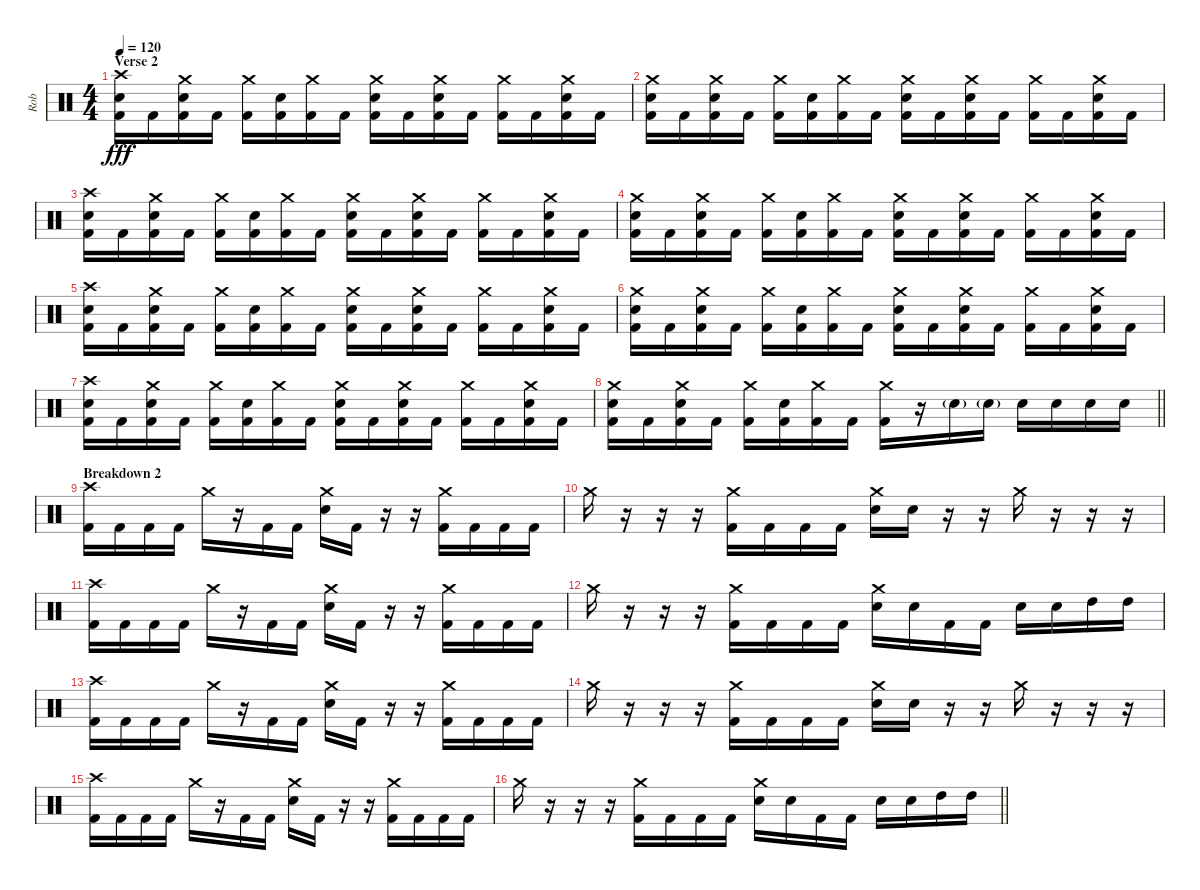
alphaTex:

\track ("Rob" "Rob") {instrument percussion}
\staff {score}
\articulation defaults
\ts (4 4)
\section ("" "Verse 2")
\tempo 120
\clef neutral
\ks c
("Crash high (hit)" "Electric Snare (hit)" "Kick (hit) 2").16{dy fff} "Kick (hit) 2".16 ("Crash medium (hit)" "Electric Snare (hit)" "Kick (hit) 2").16 "Kick (hit) 2".16 ("Crash medium (hit)" "Kick (hit) 2").16 ("Electric Snare (hit)" "Kick (hit) 2").16 ("Crash medium (hit)" "Kick (hit) 2").16 "Kick (hit) 2".16 ("Crash medium (hit)" "Electric Snare (hit)" "Kick (hit) 2").16 "Kick (hit) 2".16 ("Crash medium (hit)" "Electric Snare (hit)" "Kick (hit) 2").16 "Kick (hit) 2".16 ("Crash medium (hit)" "Kick (hit) 2").16 "Kick (hit) 2".16 ("Crash medium (hit)" "Electric Snare (hit)" "Kick (hit) 2").16 "Kick (hit) 2".16 |
("Crash medium (hit)" "Electric Snare (hit)" "Kick (hit) 2").16 "Kick (hit) 2".16 ("Crash medium (hit)" "Electric Snare (hit)" "Kick (hit) 2").16 "Kick (hit) 2".16 ("Crash medium (hit)" "Kick (hit) 2").16 ("Electric Snare (hit)" "Kick (hit) 2").16 ("Crash medium (hit)" "Kick (hit) 2").16 "Kick (hit) 2".16 ("Crash medium (hit)" "Electric Snare (hit)" "Kick (hit) 2").16 "Kick (hit) 2".16 ("Crash medium (hit)" "Electric Snare (hit)" "Kick (hit) 2").16 "Kick (hit) 2".16 ("Crash medium (hit)" "Kick (hit) 2").16 "Kick (hit) 2".16 ("Crash medium (hit)" "Electric Snare (hit)" "Kick (hit) 2").16 "Kick (hit) 2".16 |
("Crash high (hit)" "Electric Snare (hit)" "Kick (hit) 2").16 "Kick (hit) 2".16 ("Crash medium (hit)" "Electric Snare (hit)" "Kick (hit) 2").16 "Kick (hit) 2".16 ("Crash medium (hit)" "Kick (hit) 2").16 ("Electric Snare (hit)" "Kick (hit) 2").16 ("Crash medium (hit)" "Kick (hit) 2").16 "Kick (hit) 2".16 ("Crash medium (hit)" "Electric Snare (hit)" "Kick (hit) 2").16 "Kick (hit) 2".16 ("Crash medium (hit)" "Electric Snare (hit)" "Kick (hit) 2").16 "Kick (hit) 2".16 ("Crash medium (hit)" "Kick (hit) 2").16 "Kick (hit) 2".16 ("Crash medium (hit)" "Electric Snare (hit)" "Kick (hit) 2").16 "Kick (hit) 2".16 |
("Crash medium (hit)" "Electric Snare (hit)" "Kick (hit) 2").16 "Kick (hit) 2".16 ("Crash medium (hit)" "Electric Snare (hit)" "Kick (hit) 2").16 "Kick (hit) 2".16 ("Crash medium (hit)" "Kick (hit) 2").16 ("Electric Snare (hit)" "Kick (hit) 2").16 ("Crash medium (hit)" "Kick (hit) 2").16 "Kick (hit) 2".16 ("Crash medium (hit)" "Electric Snare (hit)" "Kick (hit) 2").16 "Kick (hit) 2".16 ("Crash medium (hit)" "Electric Snare (hit)" "Kick (hit) 2").16 "Kick (hit) 2".16 ("Crash medium (hit)" "Kick (hit) 2").16 "Kick (hit) 2".16 ("Crash medium (hit)" "Electric Snare (hit)" "Kick (hit) 2").16 "Kick (hit) 2".16 |
("Crash high (hit)" "Electric Snare (hit)" "Kick (hit) 2").16 "Kick (hit) 2".16 ("Crash medium (hit)" "Electric Snare (hit)" "Kick (hit) 2").16 "Kick (hit) 2".16 ("Crash medium (hit)" "Kick (hit) 2").16 ("Electric Snare (hit)" "Kick (hit) 2").16 ("Crash medium (hit)" "Kick (hit) 2").16 "Kick (hit) 2".16 ("Crash medium (hit)" "Electric Snare (hit)" "Kick (hit) 2").16 "Kick (hit) 2".16 ("Crash medium (hit)" "Electric Snare (hit)" "Kick (hit) 2").16 "Kick (hit) 2".16 ("Crash medium (hit)" "Kick (hit) 2").16 "Kick (hit) 2".16 ("Crash medium (hit)" "Electric Snare (hit)" "Kick (hit) 2").16 "Kick (hit) 2".16 |
("Crash medium (hit)" "Electric Snare (hit)" "Kick (hit) 2").16 "Kick (hit) 2".16 ("Crash medium (hit)" "Electric Snare (hit)" "Kick (hit) 2").16 "Kick (hit) 2".16 ("Crash medium (hit)" "Kick (hit) 2").16 ("Electric Snare (hit)" "Kick (hit) 2").16 ("Crash medium (hit)" "Kick (hit) 2").16 "Kick (hit) 2".16 ("Crash medium (hit)" "Electric Snare (hit)" "Kick (hit) 2").16 "Kick (hit) 2".16 ("Crash medium (hit)" "Electric Snare (hit)" "Kick (hit) 2").16 "Kick (hit) 2".16 ("Crash medium (hit)" "Kick (hit) 2").16 "Kick (hit) 2".16 ("Crash medium (hit)" "Electric Snare (hit)" "Kick (hit) 2").16 "Kick (hit) 2".16 |
("Crash high (hit)" "Electric Snare (hit)" "Kick (hit) 2").16 "Kick (hit) 2".16 ("Crash medium (hit)" "Electric Snare (hit)" "Kick (hit) 2").16 "Kick (hit) 2".16 ("Crash medium (hit)" "Kick (hit) 2").16 ("Electric Snare (hit)" "Kick (hit) 2").16 ("Crash medium (hit)" "Kick (hit) 2").16 "Kick (hit) 2".16 ("Crash medium (hit)" "Electric Snare (hit)" "Kick (hit) 2").16 "Kick (hit) 2".16 ("Crash medium (hit)" "Electric Snare (hit)" "Kick (hit) 2").16 "Kick (hit) 2".16 ("Crash medium (hit)" "Kick (hit) 2").16 "Kick (hit) 2".16 ("Crash medium (hit)" "Electric Snare (hit)" "Kick (hit) 2").16 "Kick (hit) 2".16 |
\barLineRight lightlight
("Crash medium (hit)" "Electric Snare (hit)" "Kick (hit) 2").16 "Kick (hit) 2".16 ("Crash medium (hit)" "Electric Snare (hit)" "Kick (hit) 2").16 "Kick (hit) 2".16 ("Crash medium (hit)" "Kick (hit) 2").16 ("Electric Snare (hit)" "Kick (hit) 2").16 ("Crash medium (hit)" "Kick (hit) 2").16 "Kick (hit) 2".16 ("Crash medium (hit)" "Kick (hit) 2").16 r.16 "Electric Snare (hit)"{g}.16 "Electric Snare (hit)"{g}.16 "Electric Snare (hit)".16 "Electric Snare (hit)".16 "Electric Snare (hit)".16 "Electric Snare (hit)".16 |
\section ("" "Breakdown 2")
("Crash high (hit)" "Kick (hit) 2").16 "Kick (hit) 2".16 "Kick (hit) 2".16 "Kick (hit) 2".16 "Crash medium (hit)".16 r.16 "Kick (hit) 2".16 "Kick (hit) 2".16 ("Crash medium (hit)" "Electric Snare (hit)").16 "Kick (hit) 2".16 r.16 r.16 ("Crash medium (hit)" "Kick (hit) 2").16 "Kick (hit) 2".16 "Kick (hit) 2".16 "Kick (hit) 2".16 |
"Crash medium (hit)".16 r.16 r.16 r.16 ("Crash medium (hit)" "Kick (hit) 2").16 "Kick (hit) 2".16 "Kick (hit) 2".16 "Kick (hit) 2".16 ("Crash medium (hit)" "Electric Snare (hit)").16 "Electric Snare (hit)".16 r.16 r.16 "Crash medium (hit)".16 r.16 r.16 r.16 |
("Crash high (hit)" "Kick (hit) 2").16 "Kick (hit) 2".16 "Kick (hit) 2".16 "Kick (hit) 2".16 "Crash medium (hit)".16 r.16 "Kick (hit) 2".16 "Kick (hit) 2".16 ("Crash medium (hit)" "Electric Snare (hit)").16 "Kick (hit) 2".16 r.16 r.16 ("Crash medium (hit)" "Kick (hit) 2").16 "Kick (hit) 2".16 "Kick (hit) 2".16 "Kick (hit) 2".16 |
"Crash medium (hit)".16 r.16 r.16 r.16 ("Crash medium (hit)" "Kick (hit) 2").16 "Kick (hit) 2".16 "Kick (hit) 2".16 "Kick (hit) 2".16 ("Crash medium (hit)" "Electric Snare (hit)").16 "Electric Snare (hit)".16 "Kick (hit) 2".16 "Kick (hit) 2".16 "Electric Snare (hit)".16 "Electric Snare (hit)".16 "High Tom (hit)".16 "High Tom (hit)".16 |
("Crash high (hit)" "Kick (hit) 2").16 "Kick (hit) 2".16 "Kick (hit) 2".16 "Kick (hit) 2".16 "Crash medium (hit)".16 r.16 "Kick (hit) 2".16 "Kick (hit) 2".16 ("Crash medium (hit)" "Electric Snare (hit)").16 "Kick (hit) 2".16 r.16 r.16 ("Crash medium (hit)" "Kick (hit) 2").16 "Kick (hit) 2".16 "Kick (hit) 2".16 "Kick (hit) 2".16 |
"Crash medium (hit)".16 r.16 r.16 r.16 ("Crash medium (hit)" "Kick (hit) 2").16 "Kick (hit) 2".16 "Kick (hit) 2".16 "Kick (hit) 2".16 ("Crash medium (hit)" "Electric Snare (hit)").16 "Electric Snare (hit)".16 r.16 r.16 "Crash medium (hit)".16 r.16 r.16 r.16 |
("Crash high (hit)" "Kick (hit) 2").16 "Kick (hit) 2".16 "Kick (hit) 2".16 "Kick (hit) 2".16 "Crash medium (hit)".16 r.16 "Kick (hit) 2".16 "Kick (hit) 2".16 ("Crash medium (hit)" "Electric Snare (hit)").16 "Kick (hit) 2".16 r.16 r.16 ("Crash medium (hit)" "Kick (hit) 2").16 "Kick (hit) 2".16 "Kick (hit) 2".16 "Kick (hit) 2".16 |
\barLineRight lightlight "Crash medium (hit)".16
r.16 r.16 r.16 ("Crash medium (hit)" "Kick (hit) 2").16 "Kick (hit) 2".16 "Kick (hit) 2".16 "Kick (hit) 2".16 ("Crash medium (hit)" "Electric Snare (hit)").16 "Electric Snare (hit)".16 "Kick (hit) 2".16 "Kick (hit) 2".16 "Electric Snare (hit)".16 "Electric Snare (hit)".16 "High Tom (hit)".16 "High Tom (hit)".16
